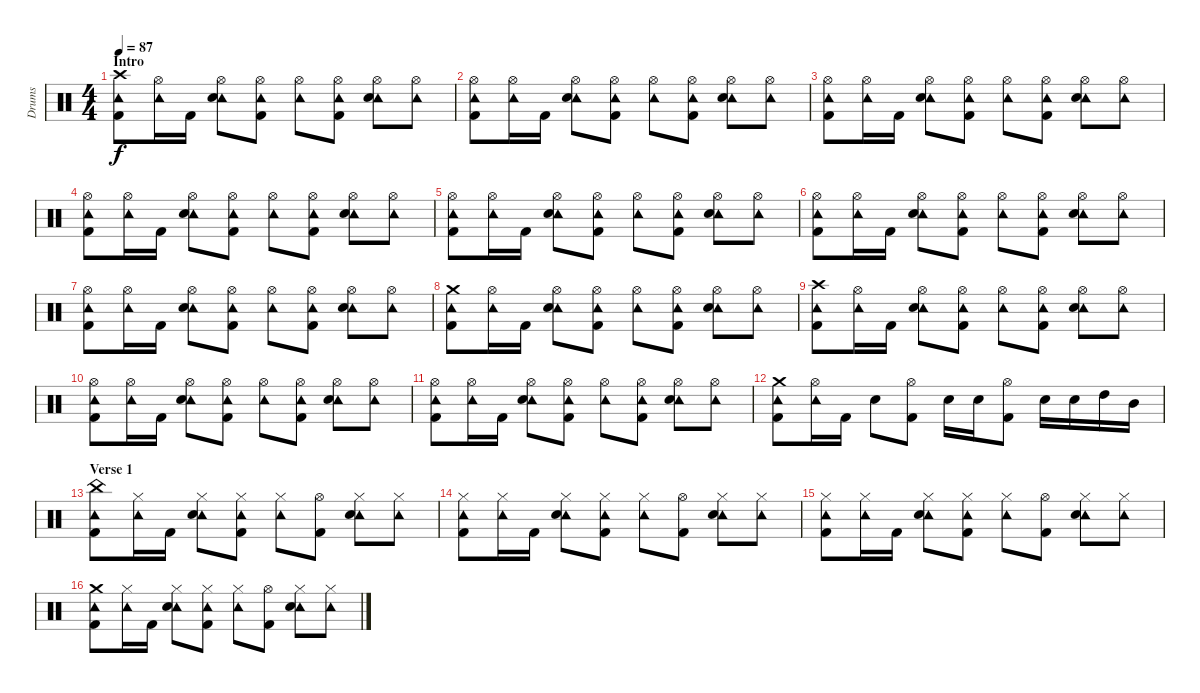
\track ("Drums" "Drums") {instrument percussion}
\staff {score}
\articulation defaults
\ts (4 4)
\section ("" "Intro")
\tempo 87
\clef neutral
\ks c
("Tambourine (hit)" "Crash high (hit)" "Kick (hit) 2").8{dy f volume 0} ("Tambourine (hit)" "Hi-Hat (open)").16{volume 6} "Kick (hit) 2".16 ("Tambourine (hit)" "Hi-Hat (open)" "Snare (hit) 2").8 ("Tambourine (hit)" "Hi-Hat (open)" "Kick (hit) 2").8 ("Tambourine (hit)" "Hi-Hat (open)").8 ("Tambourine (hit)" "Hi-Hat (open)" "Kick (hit) 2").8 ("Tambourine (hit)" "Hi-Hat (open)" "Snare (hit) 2").8 ("Tambourine (hit)" "Hi-Hat (open)").8 |
("Tambourine (hit)" "Hi-Hat (open)" "Kick (hit) 2").8 ("Tambourine (hit)" "Hi-Hat (open)").16 "Kick (hit) 2".16 ("Tambourine (hit)" "Hi-Hat (open)" "Snare (hit) 2").8 ("Tambourine (hit)" "Hi-Hat (open)" "Kick (hit) 2").8 ("Tambourine (hit)" "Hi-Hat (open)").8 ("Tambourine (hit)" "Hi-Hat (open)" "Kick (hit) 2").8 ("Tambourine (hit)" "Hi-Hat (open)" "Snare (hit) 2").8 ("Tambourine (hit)" "Hi-Hat (open)").8 |
("Tambourine (hit)" "Hi-Hat (open)" "Kick (hit) 2").8{volume 10} ("Tambourine (hit)" "Hi-Hat (open)").16 "Kick (hit) 2".16 ("Tambourine (hit)" "Hi-Hat (open)" "Snare (hit) 2").8 ("Tambourine (hit)" "Hi-Hat (open)" "Kick (hit) 2").8 ("Tambourine (hit)" "Hi-Hat (open)").8 ("Tambourine (hit)" "Hi-Hat (open)" "Kick (hit) 2").8 ("Tambourine (hit)" "Hi-Hat (open)" "Snare (hit) 2").8 ("Tambourine (hit)" "Hi-Hat (open)").8 |
("Tambourine (hit)" "Hi-Hat (open)" "Kick (hit) 2").8 ("Tambourine (hit)" "Hi-Hat (open)").16 "Kick (hit) 2".16 ("Tambourine (hit)" "Hi-Hat (open)" "Snare (hit) 2").8 ("Tambourine (hit)" "Hi-Hat (open)" "Kick (hit) 2").8 ("Tambourine (hit)" "Hi-Hat (open)").8 ("Tambourine (hit)" "Hi-Hat (open)" "Kick (hit) 2").8 ("Tambourine (hit)" "Hi-Hat (open)" "Snare (hit) 2").8 ("Tambourine (hit)" "Hi-Hat (open)").8 |
("Tambourine (hit)" "Hi-Hat (open)" "Kick (hit) 2").8{volume 14} ("Tambourine (hit)" "Hi-Hat (open)").16 "Kick (hit) 2".16 ("Tambourine (hit)" "Hi-Hat (open)" "Snare (hit) 2").8 ("Tambourine (hit)" "Hi-Hat (open)" "Kick (hit) 2").8 ("Tambourine (hit)" "Hi-Hat (open)").8 ("Tambourine (hit)" "Hi-Hat (open)" "Kick (hit) 2").8 ("Tambourine (hit)" "Hi-Hat (open)" "Snare (hit) 2").8 ("Tambourine (hit)" "Hi-Hat (open)").8 |
("Tambourine (hit)" "Hi-Hat (open)" "Kick (hit) 2").8 ("Tambourine (hit)" "Hi-Hat (open)").16 "Kick (hit) 2".16 ("Tambourine (hit)" "Hi-Hat (open)" "Snare (hit) 2").8 ("Tambourine (hit)" "Hi-Hat (open)" "Kick (hit) 2").8 ("Tambourine (hit)" "Hi-Hat (open)").8 ("Tambourine (hit)" "Hi-Hat (open)" "Kick (hit) 2").8 ("Tambourine (hit)" "Hi-Hat (open)" "Snare (hit) 2").8 ("Tambourine (hit)" "Hi-Hat (open)").8 |
("Tambourine (hit)" "Hi-Hat (open)" "Kick (hit) 2").8 ("Tambourine (hit)" "Hi-Hat (open)").16 "Kick (hit) 2".16 ("Tambourine (hit)" "Hi-Hat (open)" "Snare (hit) 2").8 ("Tambourine (hit)" "Hi-Hat (open)" "Kick (hit) 2").8 ("Tambourine (hit)" "Hi-Hat (open)").8 ("Tambourine (hit)" "Hi-Hat (open)" "Kick (hit) 2").8 ("Tambourine (hit)" "Hi-Hat (open)" "Snare (hit) 2").8 ("Tambourine (hit)" "Hi-Hat (open)").8 |
("Tambourine (hit)" "Crash medium (hit)" "Kick (hit) 2").8 ("Tambourine (hit)" "Hi-Hat (open)").16 "Kick (hit) 2".16 ("Tambourine (hit)" "Hi-Hat (open)" "Snare (hit) 2").8 ("Tambourine (hit)" "Hi-Hat (open)" "Kick (hit) 2").8 ("Tambourine (hit)" "Hi-Hat (open)").8 ("Tambourine (hit)" "Hi-Hat (open)" "Kick (hit) 2").8 ("Tambourine (hit)" "Hi-Hat (open)" "Snare (hit) 2").8 ("Tambourine (hit)" "Hi-Hat (open)").8 |
("Tambourine (hit)" "Crash high (hit)" "Kick (hit) 2").8 ("Tambourine (hit)" "Hi-Hat (open)").16 "Kick (hit) 2".16 ("Tambourine (hit)" "Hi-Hat (open)" "Snare (hit) 2").8 ("Tambourine (hit)" "Hi-Hat (open)" "Kick (hit) 2").8 ("Tambourine (hit)" "Hi-Hat (open)").8 ("Tambourine (hit)" "Hi-Hat (open)" "Kick (hit) 2").8 ("Tambourine (hit)" "Hi-Hat (open)" "Snare (hit) 2").8 ("Tambourine (hit)" "Hi-Hat (open)").8 |
("Tambourine (hit)" "Hi-Hat (open)" "Kick (hit) 2").8 ("Tambourine (hit)" "Hi-Hat (open)").16 "Kick (hit) 2".16 ("Tambourine (hit)" "Hi-Hat (open)" "Snare (hit) 2").8 ("Tambourine (hit)" "Hi-Hat (open)" "Kick (hit) 2").8 ("Tambourine (hit)" "Hi-Hat (open)").8 ("Tambourine (hit)" "Hi-Hat (open)" "Kick (hit) 2").8 ("Tambourine (hit)" "Hi-Hat (open)" "Snare (hit) 2").8 ("Tambourine (hit)" "Hi-Hat (open)").8 |
("Tambourine (hit)" "Hi-Hat (open)" "Kick (hit) 2").8 ("Tambourine (hit)" "Hi-Hat (open)").16 "Kick (hit) 2".16 ("Tambourine (hit)" "Hi-Hat (open)" "Snare (hit) 2").8 ("Tambourine (hit)" "Hi-Hat (open)" "Kick (hit) 2").8 ("Tambourine (hit)" "Hi-Hat (open)").8 ("Tambourine (hit)" "Hi-Hat (open)" "Kick (hit) 2").8 ("Tambourine (hit)" "Hi-Hat (open)" "Snare (hit) 2").8 ("Tambourine (hit)" "Hi-Hat (open)").8 |
("Tambourine (hit)" "Crash medium (hit)" "Kick (hit) 2").8 ("Tambourine (hit)" "Hi-Hat (open)").16 "Kick (hit) 2".16 "Snare (hit) 2".8 ("Hi-Hat (open)" "Kick (hit) 2").8 "Snare (hit) 2".16 "Snare (hit) 2".16 ("Hi-Hat (open)" "Kick (hit) 2").8 "Snare (hit) 2".16 "Snare (hit) 2".16 "High Tom (hit)".16 "Mid Tom (hit)".16 |
\section ("" "Verse 1")
("Tambourine (hit)" "China (hit)" "Kick (hit) 2").8 ("Tambourine (hit)" "Hi-Hat (closed)").16 "Kick (hit) 2".16 ("Tambourine (hit)" "Hi-Hat (closed)" "Snare (hit) 2").8 ("Tambourine (hit)" "Hi-Hat (closed)" "Kick (hit) 2").8 ("Tambourine (hit)" "Hi-Hat (closed)").8 ("Hi-Hat (open)" "Kick (hit) 2").8 ("Tambourine (hit)" "Hi-Hat (closed)" "Snare (hit) 2").8 ("Tambourine (hit)" "Hi-Hat (closed)").8 |
("Tambourine (hit)" "Hi-Hat (closed)" "Kick (hit) 2").8 ("Tambourine (hit)" "Hi-Hat (closed)").16 "Kick (hit) 2".16 ("Tambourine (hit)" "Hi-Hat (closed)" "Snare (hit) 2").8 ("Tambourine (hit)" "Hi-Hat (closed)" "Kick (hit) 2").8 ("Tambourine (hit)" "Hi-Hat (closed)").8 ("Hi-Hat (open)" "Kick (hit) 2").8 ("Tambourine (hit)" "Hi-Hat (closed)" "Snare (hit) 2").8 ("Tambourine (hit)" "Hi-Hat (closed)").8 |
("Tambourine (hit)" "Hi-Hat (closed)" "Kick (hit) 2").8 ("Tambourine (hit)" "Hi-Hat (closed)").16 "Kick (hit) 2".16 ("Tambourine (hit)" "Hi-Hat (closed)" "Snare (hit) 2").8 ("Tambourine (hit)" "Hi-Hat (closed)" "Kick (hit) 2").8 ("Tambourine (hit)" "Hi-Hat (closed)").8 ("Hi-Hat (open)" "Kick (hit) 2").8 ("Tambourine (hit)" "Hi-Hat (closed)" "Snare (hit) 2").8 ("Tambourine (hit)" "Hi-Hat (closed)").8 |
("Tambourine (hit)" "Crash medium (hit)" "Kick (hit) 2").8 ("Tambourine (hit)" "Hi-Hat (closed)").16 "Kick (hit) 2".16 ("Tambourine (hit)" "Hi-Hat (closed)" "Snare (hit) 2").8 ("Tambourine (hit)" "Hi-Hat (closed)" "Kick (hit) 2").8 ("Tambourine (hit)" "Hi-Hat (closed)").8 ("Hi-Hat (open)" "Kick (hit) 2").8 ("Tambourine (hit)" "Hi-Hat (closed)" "Snare (hit) 2").8 ("Tambourine (hit)" "Hi-Hat (closed)").8
